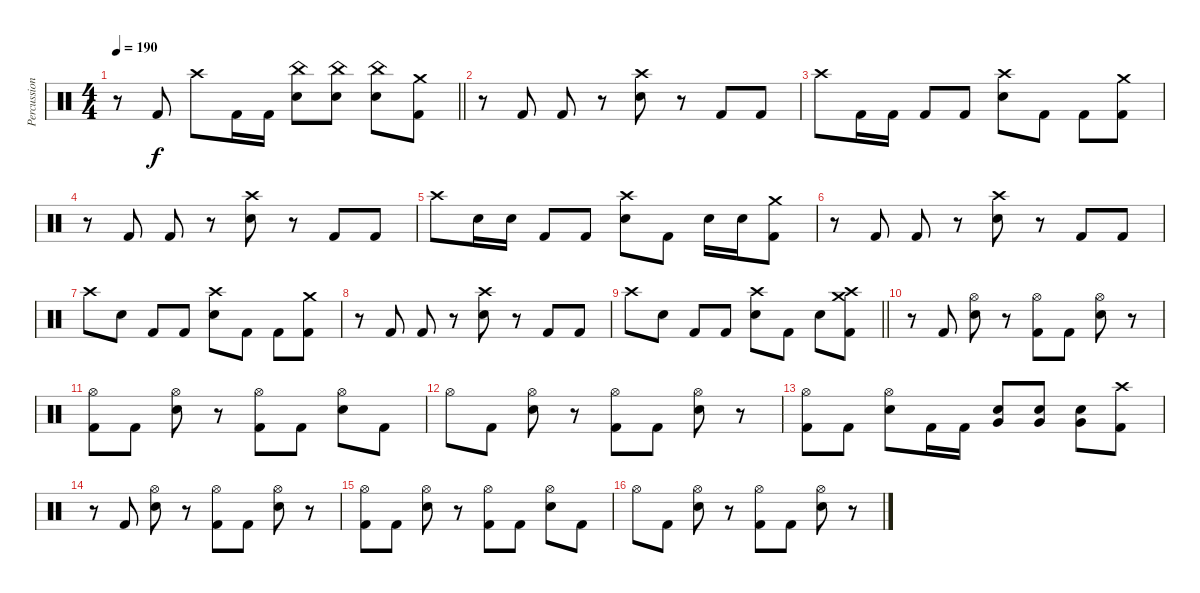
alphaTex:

\track ("Percussion" "Percussion") {instrument percussion}
\staff {score}
\articulation defaults
\ts (4 4)
\tempo 190
\clef neutral
\barLineRight lightlight
\ks c
r.8{dy f} "Kick (hit) 2".8 "Crash high (hit)".8 "Kick (hit) 2".16 "Kick (hit) 2".16 ("China (hit)" "Snare (hit) 2").8 ("China (hit)" "Snare (hit) 2").8 ("China (hit)" "Snare (hit) 2").8 ("Crash medium (hit)" "Kick (hit) 2").8 |
\section ("" "")
r.8 "Kick (hit) 2".8 "Kick (hit) 2".8 r.8 ("Crash high (hit)" "Snare (hit) 2").8 r.8 "Kick (hit) 2".8 "Kick (hit) 2".8 |
"Crash high (hit)".8 "Kick (hit) 2".16 "Kick (hit) 2".16 "Kick (hit) 2".8 "Kick (hit) 2".8 ("Crash high (hit)" "Snare (hit) 2").8 "Kick (hit) 2".8 "Kick (hit) 2".8 ("Crash medium (hit)" "Kick (hit) 2").8 |
r.8 "Kick (hit) 2".8 "Kick (hit) 2".8 r.8 ("Crash high (hit)" "Snare (hit) 2").8 r.8 "Kick (hit) 2".8 "Kick (hit) 2".8 |
"Crash high (hit)".8 "Snare (hit) 2".16 "Snare (hit) 2".16 "Kick (hit) 2".8 "Kick (hit) 2".8 ("Crash high (hit)" "Snare (hit) 2").8 "Kick (hit) 2".8 "Snare (hit) 2".16 "Snare (hit) 2".16 ("Crash medium (hit)" "Kick (hit) 2").8 |
r.8 "Kick (hit) 2".8 "Kick (hit) 2".8 r.8 ("Crash high (hit)" "Snare (hit) 2").8 r.8 "Kick (hit) 2".8 "Kick (hit) 2".8 |
"Crash high (hit)".8 "Snare (hit) 2".8 "Kick (hit) 2".8 "Kick (hit) 2".8 ("Crash high (hit)" "Snare (hit) 2").8 "Kick (hit) 2".8 "Kick (hit) 2".8 ("Crash medium (hit)" "Kick (hit) 2").8 |
r.8 "Kick (hit) 2".8 "Kick (hit) 2".8 r.8 ("Crash high (hit)" "Snare (hit) 2").8 r.8 "Kick (hit) 2".8 "Kick (hit) 2".8 |
\barLineRight lightlight "Crash high (hit)".8 "Snare (hit) 2".8 "Kick (hit) 2".8 "Kick (hit) 2".8
("Crash high (hit)" "Snare (hit) 2").8 "Kick (hit) 2".8 "Snare (hit) 2".8 ("Crash high (hit)" "Crash medium (hit)" "Kick (hit) 2").8 |
\section ("" "")
r.8 "Kick (hit) 2".8 ("Hi-Hat (open)" "Snare (hit) 2").8 r.8 ("Hi-Hat (open)" "Kick (hit) 2").8 "Kick (hit) 2".8 ("Hi-Hat (open)" "Snare (hit) 2").8 r.8 |
("Hi-Hat (open)" "Kick (hit) 2").8 "Kick (hit) 2".8 ("Hi-Hat (open)" "Snare (hit) 2").8 r.8 ("Hi-Hat (open)" "Kick (hit) 2").8 "Kick (hit) 2".8 ("Hi-Hat (open)" "Snare (hit) 2").8 "Kick (hit) 2".8 |
"Hi-Hat (open)".8 "Kick (hit) 2".8 ("Hi-Hat (open)" "Snare (hit) 2").8 r.8 ("Hi-Hat (open)" "Kick (hit) 2").8 "Kick (hit) 2".8 ("Hi-Hat (open)" "Snare (hit) 2").8 r.8 |
("Hi-Hat (open)" "Kick (hit) 2").8 "Kick (hit) 2".8 ("Hi-Hat (open)" "Snare (hit) 2").8 "Kick (hit) 2".16 "Kick (hit) 2".16 ("Very Low Tom (hit)" "Snare (hit) 2").8 ("Very Low Tom (hit)" "Snare (hit) 2").8 ("Very Low Tom (hit)" "Snare (hit) 2").8 ("Crash high (hit)" "Kick (hit) 2").8 |
r.8 "Kick (hit) 2".8 ("Hi-Hat (open)" "Snare (hit) 2").8 r.8 ("Hi-Hat (open)" "Kick (hit) 2").8 "Kick (hit) 2".8 ("Hi-Hat (open)" "Snare (hit) 2").8 r.8 |
("Hi-Hat (open)" "Kick (hit) 2").8 "Kick (hit) 2".8 ("Hi-Hat (open)" "Snare (hit) 2").8 r.8 ("Hi-Hat (open)" "Kick (hit) 2").8 "Kick (hit) 2".8 ("Hi-Hat (open)" "Snare (hit) 2").8 "Kick (hit) 2".8 |
"Hi-Hat (open)".8 "Kick (hit) 2".8 ("Hi-Hat (open)" "Snare (hit) 2").8 r.8 ("Hi-Hat (open)" "Kick (hit) 2").8 "Kick (hit) 2".8 ("Hi-Hat (open)" "Snare (hit) 2").8 r.8
